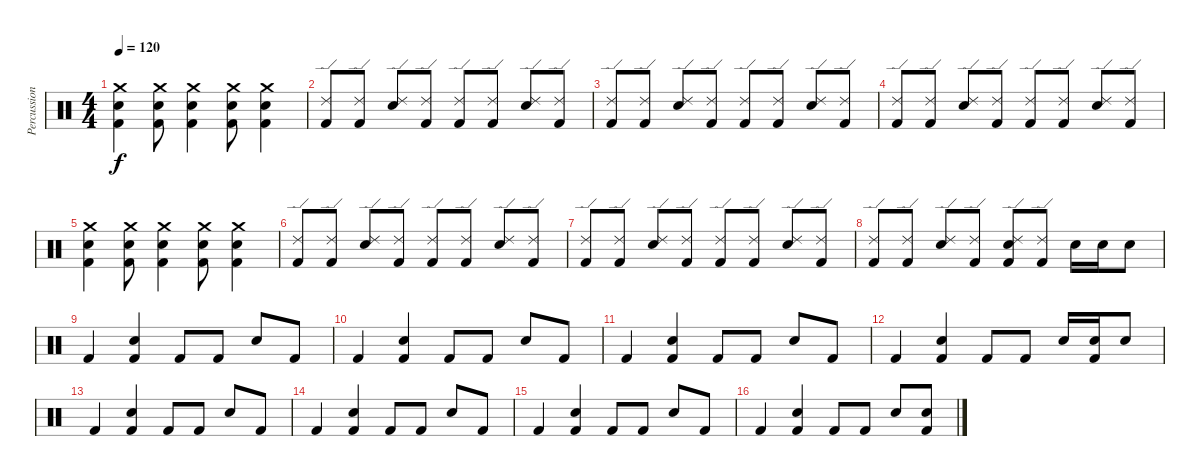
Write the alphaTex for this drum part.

\track ("Percussion" "Percussion") {instrument percussion}
\staff {score}
\articulation defaults
\ts (4 4)
\tempo 120
\clef neutral
\ks c
("Kick (hit) 2" "Snare (hit) 2" "Crash medium (hit)").4{dy f} ("Kick (hit) 2" "Snare (hit) 2" "Crash medium (hit)").8 ("Kick (hit) 2" "Snare (hit) 2" "Crash medium (hit)").4 ("Kick (hit) 2" "Snare (hit) 2" "Crash medium (hit)").8 ("Kick (hit) 2" "Snare (hit) 2" "Crash medium (hit)").4 |
("Kick (hit) 2" "Ride (edge) 2").8 ("Kick (hit) 2" "Ride (edge) 2").8 ("Snare (hit) 2" "Ride (edge) 2").8 ("Kick (hit) 2" "Ride (edge) 2").8 ("Kick (hit) 2" "Ride (edge) 2").8 ("Kick (hit) 2" "Ride (edge) 2").8 ("Snare (hit) 2" "Ride (edge) 2").8 ("Kick (hit) 2" "Ride (edge) 2").8 |
("Kick (hit) 2" "Ride (edge) 2").8 ("Kick (hit) 2" "Ride (edge) 2").8 ("Snare (hit) 2" "Ride (edge) 2").8 ("Kick (hit) 2" "Ride (edge) 2").8 ("Kick (hit) 2" "Ride (edge) 2").8 ("Kick (hit) 2" "Ride (edge) 2").8 ("Snare (hit) 2" "Ride (edge) 2").8 ("Kick (hit) 2" "Ride (edge) 2").8 |
("Kick (hit) 2" "Ride (edge) 2").8 ("Kick (hit) 2" "Ride (edge) 2").8 ("Snare (hit) 2" "Ride (edge) 2").8 ("Kick (hit) 2" "Ride (edge) 2").8 ("Kick (hit) 2" "Ride (edge) 2").8 ("Kick (hit) 2" "Ride (edge) 2").8 ("Snare (hit) 2" "Ride (edge) 2").8 ("Kick (hit) 2" "Ride (edge) 2").8 |
("Kick (hit) 2" "Snare (hit) 2" "Crash medium (hit)").4 ("Kick (hit) 2" "Snare (hit) 2" "Crash medium (hit)").8 ("Kick (hit) 2" "Snare (hit) 2" "Crash medium (hit)").4 ("Kick (hit) 2" "Snare (hit) 2" "Crash medium (hit)").8 ("Kick (hit) 2" "Snare (hit) 2" "Crash medium (hit)").4 |
("Kick (hit) 2" "Ride (edge) 2").8 ("Kick (hit) 2" "Ride (edge) 2").8 ("Snare (hit) 2" "Ride (edge) 2").8 ("Kick (hit) 2" "Ride (edge) 2").8 ("Kick (hit) 2" "Ride (edge) 2").8 ("Kick (hit) 2" "Ride (edge) 2").8 ("Snare (hit) 2" "Ride (edge) 2").8 ("Kick (hit) 2" "Ride (edge) 2").8 |
("Kick (hit) 2" "Ride (edge) 2").8 ("Kick (hit) 2" "Ride (edge) 2").8 ("Snare (hit) 2" "Ride (edge) 2").8 ("Kick (hit) 2" "Ride (edge) 2").8 ("Kick (hit) 2" "Ride (edge) 2").8 ("Kick (hit) 2" "Ride (edge) 2").8 ("Snare (hit) 2" "Ride (edge) 2").8 ("Kick (hit) 2" "Ride (edge) 2").8 |
("Kick (hit) 2" "Ride (edge) 2").8 ("Kick (hit) 2" "Ride (edge) 2").8 ("Snare (hit) 2" "Ride (edge) 2").8 ("Kick (hit) 2" "Ride (edge) 2").8 ("Kick (hit) 2" "Snare (hit) 2" "Ride (edge) 2").8 ("Kick (hit) 2" "Ride (edge) 2").8 "Snare (hit) 2".16 "Snare (hit) 2".16 "Snare (hit) 2".8 |
"Kick (hit) 2".4 ("Kick (hit) 2" "Snare (hit) 2").4 "Kick (hit) 2".8 "Kick (hit) 2".8 "Snare (hit) 2".8 "Kick (hit) 2".8 |
"Kick (hit) 2".4 ("Kick (hit) 2" "Snare (hit) 2").4 "Kick (hit) 2".8 "Kick (hit) 2".8 "Snare (hit) 2".8 "Kick (hit) 2".8 |
"Kick (hit) 2".4 ("Kick (hit) 2" "Snare (hit) 2").4 "Kick (hit) 2".8 "Kick (hit) 2".8 "Snare (hit) 2".8 "Kick (hit) 2".8 |
"Kick (hit) 2".4 ("Kick (hit) 2" "Snare (hit) 2").4 "Kick (hit) 2".8 "Kick (hit) 2".8 "Snare (hit) 2".16 ("Kick (hit) 2" "Snare (hit) 2").16 "Snare (hit) 2".8 |
"Kick (hit) 2".4 ("Kick (hit) 2" "Snare (hit) 2").4 "Kick (hit) 2".8 "Kick (hit) 2".8 "Snare (hit) 2".8 "Kick (hit) 2".8 |
"Kick (hit) 2".4 ("Kick (hit) 2" "Snare (hit) 2").4 "Kick (hit) 2".8 "Kick (hit) 2".8 "Snare (hit) 2".8 "Kick (hit) 2".8 |
"Kick (hit) 2".4 ("Kick (hit) 2" "Snare (hit) 2").4 "Kick (hit) 2".8 "Kick (hit) 2".8 "Snare (hit) 2".8 "Kick (hit) 2".8 |
"Kick (hit) 2".4 ("Kick (hit) 2" "Snare (hit) 2").4 "Kick (hit) 2".8 "Kick (hit) 2".8 "Snare (hit) 2".8 ("Kick (hit) 2" "Snare (hit) 2").8
